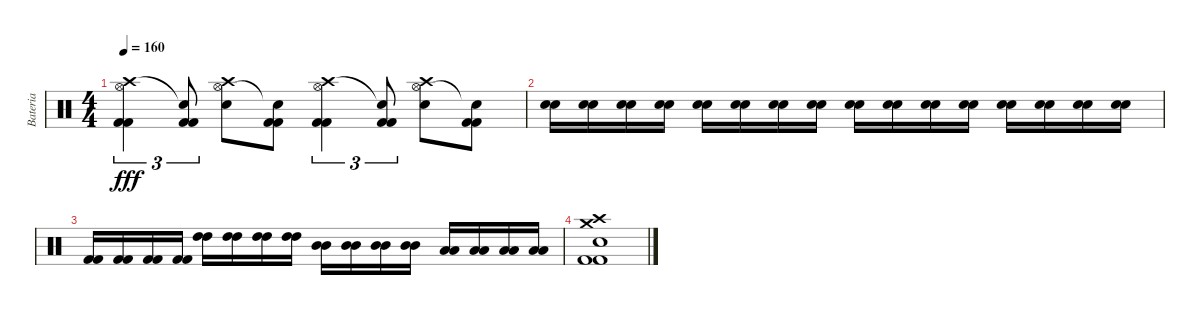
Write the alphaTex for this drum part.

\track ("Bateria" "Bateria") {instrument percussion}
\staff {score}
\articulation defaults
\ts (4 4)
\tempo 160
\clef neutral
\ks c
("Kick (hit) 2" "Kick (hit) 2" "Crash high (hit)" "Hi-Hat (open)").4{tu (3 2) dy fff} ("Kick (hit) 2" "Kick (hit) 2" "Snare (hit)"{t}).8{tu (3 2)} ("Snare (hit) 2" "Crash high (hit)" "Hi-Hat (open)").8 ("Kick (hit) 2" "Kick (hit) 2" "Snare (hit)"{t}).8 ("Kick (hit) 2" "Kick (hit) 2" "Crash high (hit)" "Hi-Hat (open)").4{tu (3 2)} ("Kick (hit) 2" "Kick (hit) 2" "Snare (hit)"{t}).8{tu (3 2)} ("Snare (hit) 2" "Crash high (hit)" "Hi-Hat (open)").8 ("Kick (hit) 2" "Kick (hit) 2" "Snare (hit)"{t}).8 |
("Snare (hit) 2" "Snare (hit) 2").16 ("Snare (hit) 2" "Snare (hit) 2").16 ("Snare (hit) 2" "Snare (hit) 2").16 ("Snare (hit) 2" "Snare (hit) 2").16 ("Snare (hit) 2" "Snare (hit) 2").16 ("Snare (hit) 2" "Snare (hit) 2").16 ("Snare (hit) 2" "Snare (hit) 2").16 ("Snare (hit) 2" "Snare (hit) 2").16 ("Snare (hit) 2" "Snare (hit) 2").16 ("Snare (hit) 2" "Snare (hit) 2").16 ("Snare (hit) 2" "Snare (hit) 2").16 ("Snare (hit) 2" "Snare (hit) 2").16 ("Snare (hit) 2" "Snare (hit) 2").16 ("Snare (hit) 2" "Snare (hit) 2").16 ("Snare (hit) 2" "Snare (hit) 2").16 ("Snare (hit) 2" "Snare (hit) 2").16 |
("Kick (hit) 2" "Kick (hit) 2").16 ("Kick (hit) 2" "Kick (hit) 2").16 ("Kick (hit) 2" "Kick (hit) 2").16 ("Kick (hit) 2" "Kick (hit) 2").16 ("High Tom (hit)" "High Tom (hit)").16 ("High Tom (hit)" "High Tom (hit)").16 ("High Tom (hit)" "High Tom (hit)").16 ("High Tom (hit)" "High Tom (hit)").16 ("Mid Tom (hit)" "Mid Tom (hit)").16 ("Mid Tom (hit)" "Mid Tom (hit)").16 ("Mid Tom (hit)" "Mid Tom (hit)").16 ("Mid Tom (hit)" "Mid Tom (hit)").16 ("Low Tom (hit)" "Low Tom (hit)").16 ("Low Tom (hit)" "Low Tom (hit)").16 ("Low Tom (hit)" "Low Tom (hit)").16 ("Low Tom (hit)" "Low Tom (hit)").16 |
("Kick (hit) 2" "Kick (hit) 2" "Snare (hit) 2" "Crash high (hit)" "Crash medium (hit)").1
